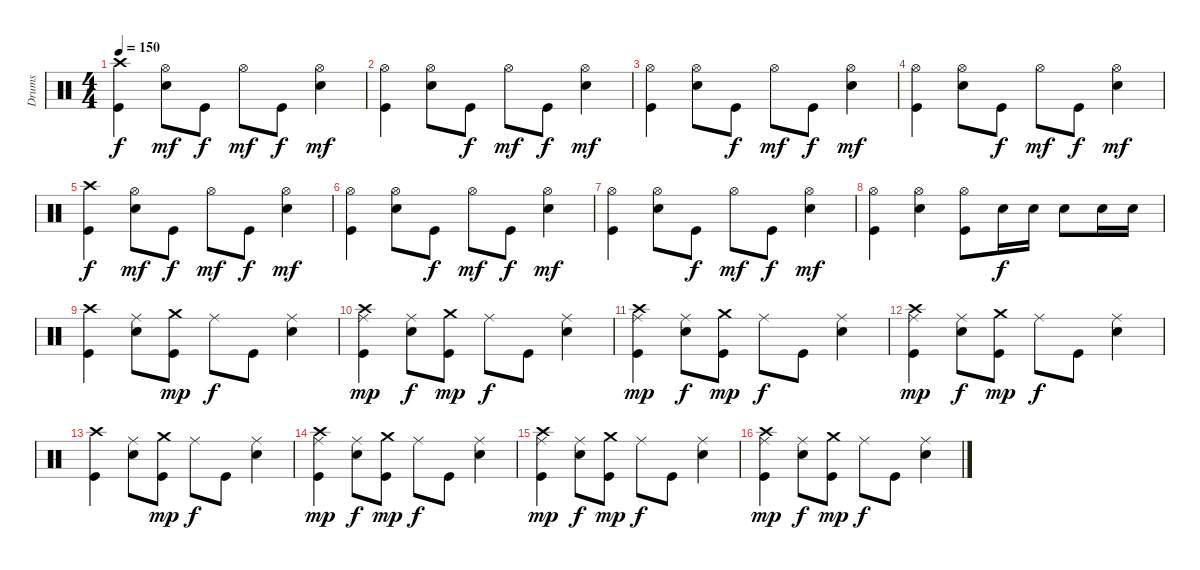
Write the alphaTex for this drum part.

\track ("Drums" "Drums") {instrument percussion}
\staff {score}
\articulation defaults
\ts (4 4)
\tempo 150
\clef neutral
\ks c
("Kick (hit)" "Crash high (hit)").4{dy f} ("Electric Snare (hit)" "Hi-Hat (open)").8{dy mf} "Kick (hit)".8{dy f} "Hi-Hat (open)".8{dy mf} "Kick (hit)".8{dy f} ("Electric Snare (hit)" "Hi-Hat (open)").4{dy mf} |
("Kick (hit)" "Hi-Hat (open)").4 ("Electric Snare (hit)" "Hi-Hat (open)").8 "Kick (hit)".8{dy f} "Hi-Hat (open)".8{dy mf} "Kick (hit)".8{dy f} ("Electric Snare (hit)" "Hi-Hat (open)").4{dy mf} |
("Kick (hit)" "Hi-Hat (open)").4 ("Electric Snare (hit)" "Hi-Hat (open)").8 "Kick (hit)".8{dy f} "Hi-Hat (open)".8{dy mf} "Kick (hit)".8{dy f} ("Electric Snare (hit)" "Hi-Hat (open)").4{dy mf} |
("Kick (hit)" "Hi-Hat (open)").4 ("Electric Snare (hit)" "Hi-Hat (open)").8 "Kick (hit)".8{dy f} "Hi-Hat (open)".8{dy mf} "Kick (hit)".8{dy f} ("Electric Snare (hit)" "Hi-Hat (open)").4{dy mf} |
("Kick (hit)" "Crash high (hit)").4{dy f} ("Electric Snare (hit)" "Hi-Hat (open)").8{dy mf} "Kick (hit)".8{dy f} "Hi-Hat (open)".8{dy mf} "Kick (hit)".8{dy f} ("Electric Snare (hit)" "Hi-Hat (open)").4{dy mf} |
("Kick (hit)" "Hi-Hat (open)").4 ("Electric Snare (hit)" "Hi-Hat (open)").8 "Kick (hit)".8{dy f} "Hi-Hat (open)".8{dy mf} "Kick (hit)".8{dy f} ("Electric Snare (hit)" "Hi-Hat (open)").4{dy mf} |
("Kick (hit)" "Hi-Hat (open)").4 ("Electric Snare (hit)" "Hi-Hat (open)").8 "Kick (hit)".8{dy f} "Hi-Hat (open)".8{dy mf} "Kick (hit)".8{dy f} ("Electric Snare (hit)" "Hi-Hat (open)").4{dy mf} |
("Kick (hit)" "Hi-Hat (open)").4 ("Electric Snare (hit)" "Hi-Hat (open)").4 ("Kick (hit)" "Hi-Hat (open)").8 "Electric Snare (hit)".16{dy f} "Electric Snare (hit)".16 "Electric Snare (hit)".8 "Electric Snare (hit)".16 "Electric Snare (hit)".16 |
("Kick (hit)" "Crash high (hit)").4 ("Electric Snare (hit)" "Ride (middle)").8 ("Kick (hit)" "Crash medium (hit)").8{dy mp} "Ride (middle)".8{dy f} "Kick (hit)".8 ("Electric Snare (hit)" "Ride (middle)").4 |
("Kick (hit)" "Ride (middle)" "Crash high (hit)").4{dy mp} ("Electric Snare (hit)" "Ride (middle)").8{dy f} ("Kick (hit)" "Crash medium (hit)").8{dy mp} "Ride (middle)".8{dy f} "Kick (hit)".8 ("Electric Snare (hit)" "Ride (middle)").4 |
("Kick (hit)" "Ride (middle)" "Crash high (hit)").4{dy mp} ("Electric Snare (hit)" "Ride (middle)").8{dy f} ("Kick (hit)" "Crash medium (hit)").8{dy mp} "Ride (middle)".8{dy f} "Kick (hit)".8 ("Electric Snare (hit)" "Ride (middle)").4 |
("Kick (hit)" "Ride (middle)" "Crash high (hit)").4{dy mp} ("Electric Snare (hit)" "Ride (middle)").8{dy f} ("Kick (hit)" "Crash medium (hit)").8{dy mp} "Ride (middle)".8{dy f} "Kick (hit)".8 ("Electric Snare (hit)" "Ride (middle)").4 |
("Kick (hit)" "Crash high (hit)").4 ("Electric Snare (hit)" "Ride (middle)").8 ("Kick (hit)" "Crash medium (hit)").8{dy mp} "Ride (middle)".8{dy f} "Kick (hit)".8 ("Electric Snare (hit)" "Ride (middle)").4 |
("Kick (hit)" "Ride (middle)" "Crash high (hit)").4{dy mp} ("Electric Snare (hit)" "Ride (middle)").8{dy f} ("Kick (hit)" "Crash medium (hit)").8{dy mp} "Ride (middle)".8{dy f} "Kick (hit)".8 ("Electric Snare (hit)" "Ride (middle)").4 |
("Kick (hit)" "Ride (middle)" "Crash high (hit)").4{dy mp} ("Electric Snare (hit)" "Ride (middle)").8{dy f} ("Kick (hit)" "Crash medium (hit)").8{dy mp} "Ride (middle)".8{dy f} "Kick (hit)".8 ("Electric Snare (hit)" "Ride (middle)").4 |
("Kick (hit)" "Ride (middle)" "Crash high (hit)").4{dy mp} ("Electric Snare (hit)" "Ride (middle)").8{dy f} ("Kick (hit)" "Crash medium (hit)").8{dy mp} "Ride (middle)".8{dy f} "Kick (hit)".8 ("Electric Snare (hit)" "Ride (middle)").4
